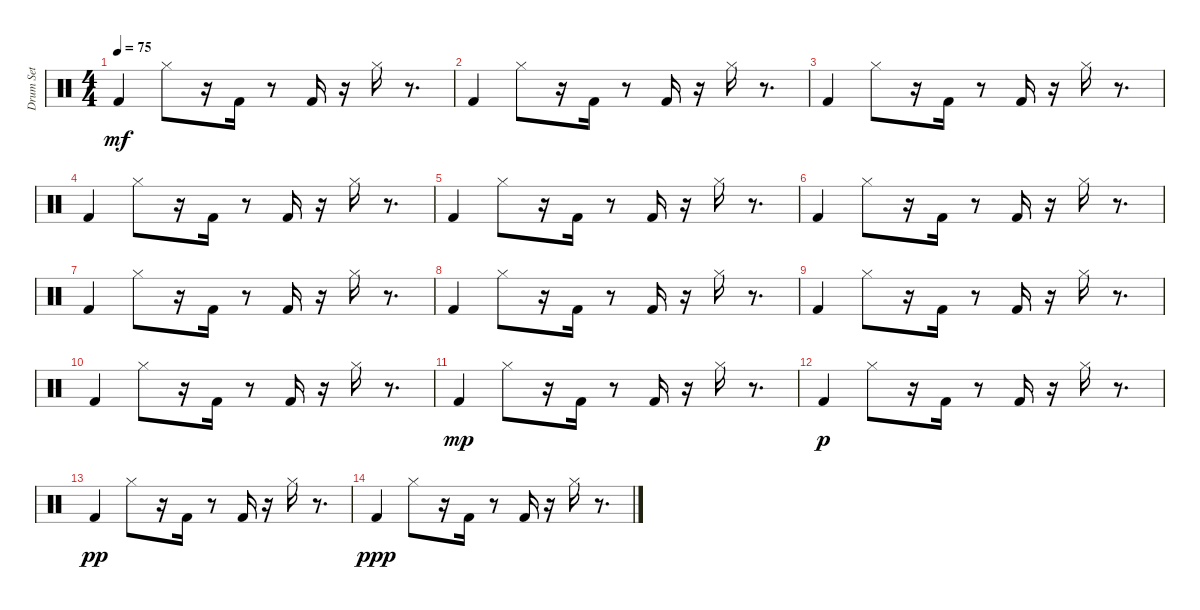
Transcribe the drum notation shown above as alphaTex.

\track ("Drum Set" "Drum Set") {instrument percussion}
\staff {score}
\articulation defaults
\ts (4 4)
\tempo 75
\clef neutral
\ks c "Kick (hit) 2".4{dy mf} "Hi-Hat (closed)".8
r.16 "Kick (hit) 2".16 r.8 "Kick (hit) 2".16 r.16 "Hi-Hat (closed)".16 r.8{d} |
"Kick (hit) 2".4 "Hi-Hat (closed)".8 r.16 "Kick (hit) 2".16 r.8 "Kick (hit) 2".16 r.16 "Hi-Hat (closed)".16 r.8{d} |
"Kick (hit) 2".4 "Hi-Hat (closed)".8 r.16 "Kick (hit) 2".16 r.8 "Kick (hit) 2".16 r.16 "Hi-Hat (closed)".16 r.8{d} |
"Kick (hit) 2".4 "Hi-Hat (closed)".8 r.16 "Kick (hit) 2".16 r.8 "Kick (hit) 2".16 r.16 "Hi-Hat (closed)".16 r.8{d} |
"Kick (hit) 2".4 "Hi-Hat (closed)".8 r.16 "Kick (hit) 2".16 r.8 "Kick (hit) 2".16 r.16 "Hi-Hat (closed)".16 r.8{d} |
"Kick (hit) 2".4 "Hi-Hat (closed)".8 r.16 "Kick (hit) 2".16 r.8 "Kick (hit) 2".16 r.16 "Hi-Hat (closed)".16 r.8{d} |
"Kick (hit) 2".4 "Hi-Hat (closed)".8 r.16 "Kick (hit) 2".16 r.8 "Kick (hit) 2".16 r.16 "Hi-Hat (closed)".16 r.8{d} |
"Kick (hit) 2".4 "Hi-Hat (closed)".8 r.16 "Kick (hit) 2".16 r.8 "Kick (hit) 2".16 r.16 "Hi-Hat (closed)".16 r.8{d} |
"Kick (hit) 2".4 "Hi-Hat (closed)".8 r.16 "Kick (hit) 2".16 r.8 "Kick (hit) 2".16 r.16 "Hi-Hat (closed)".16 r.8{d} |
"Kick (hit) 2".4 "Hi-Hat (closed)".8 r.16 "Kick (hit) 2".16 r.8 "Kick (hit) 2".16 r.16 "Hi-Hat (closed)".16 r.8{d} |
"Kick (hit) 2".4{dy mp} "Hi-Hat (closed)".8 r.16 "Kick (hit) 2".16 r.8 "Kick (hit) 2".16 r.16 "Hi-Hat (closed)".16 r.8{d} |
"Kick (hit) 2".4{dy p} "Hi-Hat (closed)".8 r.16 "Kick (hit) 2".16 r.8 "Kick (hit) 2".16 r.16 "Hi-Hat (closed)".16 r.8{d} |
"Kick (hit) 2".4{dy pp} "Hi-Hat (closed)".8 r.16 "Kick (hit) 2".16 r.8 "Kick (hit) 2".16 r.16 "Hi-Hat (closed)".16 r.8{d} |
"Kick (hit) 2".4{dy ppp} "Hi-Hat (closed)".8 r.16 "Kick (hit) 2".16 r.8 "Kick (hit) 2".16 r.16 "Hi-Hat (closed)".16 r.8{d}
